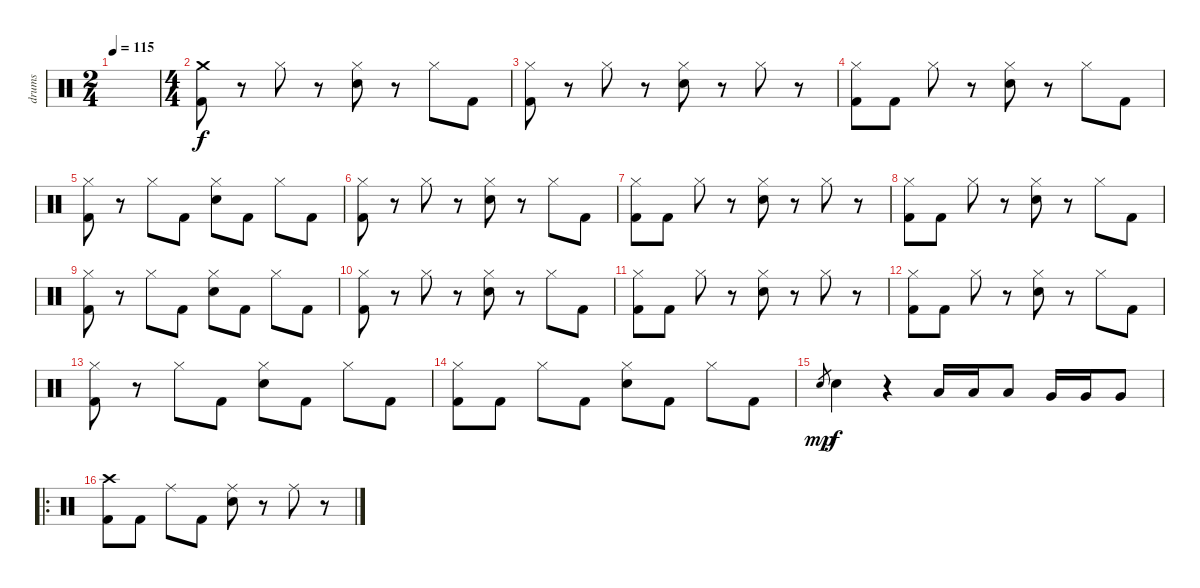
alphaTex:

\track ("drums" "drums") {instrument percussion}
\staff {score}
\articulation defaults
\ts (2 4)
\tempo 115
\clef neutral
\ks c
|
\ts (4 4)
("Crash medium (hit)" "Kick (hit) 2").8 r.8 "Hi-Hat (closed)".8 r.8 ("Hi-Hat (closed)" "Electric Snare (hit)").8 r.8 "Hi-Hat (closed)".8 "Kick (hit) 2".8 |
("Hi-Hat (closed)" "Kick (hit) 2").8 r.8 "Hi-Hat (closed)".8 r.8 ("Hi-Hat (closed)" "Electric Snare (hit)").8 r.8 "Hi-Hat (closed)".8 r.8 |
("Hi-Hat (closed)" "Kick (hit) 2").8 "Kick (hit) 2".8 "Hi-Hat (closed)".8 r.8 ("Hi-Hat (closed)" "Electric Snare (hit)").8 r.8 "Hi-Hat (closed)".8 "Kick (hit) 2".8 |
("Hi-Hat (closed)" "Kick (hit) 2").8 r.8 "Hi-Hat (closed)".8 "Kick (hit) 2".8 ("Hi-Hat (closed)" "Electric Snare (hit)").8 "Kick (hit) 2".8 "Hi-Hat (closed)".8 "Kick (hit) 2".8 |
("Hi-Hat (closed)" "Kick (hit) 2").8 r.8 "Hi-Hat (closed)".8 r.8 ("Hi-Hat (closed)" "Electric Snare (hit)").8 r.8 "Hi-Hat (closed)".8 "Kick (hit) 2".8 |
("Hi-Hat (closed)" "Kick (hit) 2").8 "Kick (hit) 2".8 "Hi-Hat (closed)".8 r.8 ("Hi-Hat (closed)" "Electric Snare (hit)").8 r.8 "Hi-Hat (closed)".8 r.8 |
("Hi-Hat (closed)" "Kick (hit) 2").8 "Kick (hit) 2".8 "Hi-Hat (closed)".8 r.8 ("Hi-Hat (closed)" "Electric Snare (hit)").8 r.8 "Hi-Hat (closed)".8 "Kick (hit) 2".8 |
("Hi-Hat (closed)" "Kick (hit) 2").8 r.8 "Hi-Hat (closed)".8 "Kick (hit) 2".8 ("Hi-Hat (closed)" "Electric Snare (hit)").8 "Kick (hit) 2".8 "Hi-Hat (closed)".8 "Kick (hit) 2".8 |
("Hi-Hat (closed)" "Kick (hit) 2").8 r.8 "Hi-Hat (closed)".8 r.8 ("Hi-Hat (closed)" "Electric Snare (hit)").8 r.8 "Hi-Hat (closed)".8 "Kick (hit) 2".8 |
("Hi-Hat (closed)" "Kick (hit) 2").8 "Kick (hit) 2".8 "Hi-Hat (closed)".8 r.8 ("Hi-Hat (closed)" "Electric Snare (hit)").8 r.8 "Hi-Hat (closed)".8 r.8 |
("Hi-Hat (closed)" "Kick (hit) 2").8 "Kick (hit) 2".8 "Hi-Hat (closed)".8 r.8 ("Hi-Hat (closed)" "Electric Snare (hit)").8 r.8 "Hi-Hat (closed)".8 "Kick (hit) 2".8 |
("Hi-Hat (closed)" "Kick (hit) 2").8 r.8 "Hi-Hat (closed)".8 "Kick (hit) 2".8 ("Hi-Hat (closed)" "Electric Snare (hit)").8 "Kick (hit) 2".8 "Hi-Hat (closed)".8 "Kick (hit) 2".8 |
("Hi-Hat (closed)" "Kick (hit) 2").8 "Kick (hit) 2".8 "Hi-Hat (closed)".8 "Kick (hit) 2".8 ("Hi-Hat (closed)" "Electric Snare (hit)").8 "Kick (hit) 2".8 "Hi-Hat (closed)".8 "Kick (hit) 2".8 |
"Electric Snare (hit)".8{gr dy mp} "Electric Snare (hit)".4{dy f} r.4 "Low Tom (hit)".16 "Low Tom (hit)".16 "Low Tom (hit)".8 "Very Low Tom (hit)".16 "Very Low Tom (hit)".16 "Very Low Tom (hit)".8 |
\ro
("Crash high (hit)" "Kick (hit) 2").8 "Kick (hit) 2".8 "Ride (middle)".8 "Kick (hit) 2".8 ("Ride (middle)" "Electric Snare (hit)").8 r.8 "Ride (middle)".8 r.8
